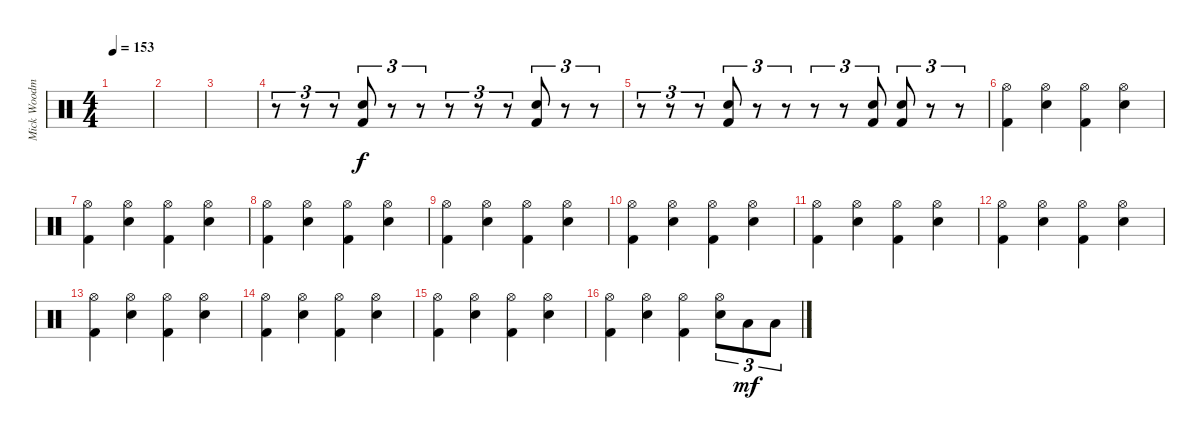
\track ("Mick Woodmansey - Drums" "Mick Woodm") {instrument percussion}
\staff {score}
\articulation defaults
\ts (4 4)
\tempo 153
\clef neutral
\ks c
|
|
|
r.8{tu (3 2)} r.8{tu (3 2)} r.8{tu (3 2)} ("Electric Snare (hit)" "Kick (hit) 2").8{tu (3 2)} r.8{tu (3 2)} r.8{tu (3 2)} r.8{tu (3 2)} r.8{tu (3 2)} r.8{tu (3 2)} ("Electric Snare (hit)" "Kick (hit) 2").8{tu (3 2)} r.8{tu (3 2)} r.8{tu (3 2)} |
r.8{tu (3 2)} r.8{tu (3 2)} r.8{tu (3 2)} ("Electric Snare (hit)" "Kick (hit) 2").8{tu (3 2)} r.8{tu (3 2)} r.8{tu (3 2)} r.8{tu (3 2)} r.8{tu (3 2)} ("Electric Snare (hit)" "Kick (hit) 2").8{tu (3 2)} ("Electric Snare (hit)" "Kick (hit) 2").8{tu (3 2)} r.8{tu (3 2)} r.8{tu (3 2)} |
("Hi-Hat (open)" "Kick (hit) 2").4 ("Hi-Hat (open)" "Electric Snare (hit)").4 ("Hi-Hat (open)" "Kick (hit) 2").4 ("Hi-Hat (open)" "Electric Snare (hit)").4 |
("Hi-Hat (open)" "Kick (hit) 2").4 ("Hi-Hat (open)" "Electric Snare (hit)").4 ("Hi-Hat (open)" "Kick (hit) 2").4 ("Hi-Hat (open)" "Electric Snare (hit)").4 |
("Hi-Hat (open)" "Kick (hit) 2").4 ("Hi-Hat (open)" "Electric Snare (hit)").4 ("Hi-Hat (open)" "Kick (hit) 2").4 ("Hi-Hat (open)" "Electric Snare (hit)").4 |
("Hi-Hat (open)" "Kick (hit) 2").4 ("Hi-Hat (open)" "Electric Snare (hit)").4 ("Hi-Hat (open)" "Kick (hit) 2").4 ("Hi-Hat (open)" "Electric Snare (hit)").4 |
("Hi-Hat (open)" "Kick (hit) 2").4 ("Hi-Hat (open)" "Electric Snare (hit)").4 ("Hi-Hat (open)" "Kick (hit) 2").4 ("Hi-Hat (open)" "Electric Snare (hit)").4 |
("Hi-Hat (open)" "Kick (hit) 2").4 ("Hi-Hat (open)" "Electric Snare (hit)").4 ("Hi-Hat (open)" "Kick (hit) 2").4 ("Hi-Hat (open)" "Electric Snare (hit)").4 |
("Hi-Hat (open)" "Kick (hit) 2").4 ("Hi-Hat (open)" "Electric Snare (hit)").4 ("Hi-Hat (open)" "Kick (hit) 2").4 ("Hi-Hat (open)" "Electric Snare (hit)").4 |
("Hi-Hat (open)" "Kick (hit) 2").4 ("Hi-Hat (open)" "Electric Snare (hit)").4 ("Hi-Hat (open)" "Kick (hit) 2").4 ("Hi-Hat (open)" "Electric Snare (hit)").4 |
("Hi-Hat (open)" "Kick (hit) 2").4 ("Hi-Hat (open)" "Electric Snare (hit)").4 ("Hi-Hat (open)" "Kick (hit) 2").4 ("Hi-Hat (open)" "Electric Snare (hit)").4 |
("Hi-Hat (open)" "Kick (hit) 2").4 ("Hi-Hat (open)" "Electric Snare (hit)").4 ("Hi-Hat (open)" "Kick (hit) 2").4 ("Hi-Hat (open)" "Electric Snare (hit)").4 |
("Hi-Hat (open)" "Kick (hit) 2").4 ("Hi-Hat (open)" "Electric Snare (hit)").4 ("Hi-Hat (open)" "Kick (hit) 2").4 ("Hi-Hat (open)" "Electric Snare (hit)").8{tu (3 2)} "Low Floor Tom (hit)".8{tu (3 2) dy mf} "Low Floor Tom (hit)".8{tu (3 2)}
